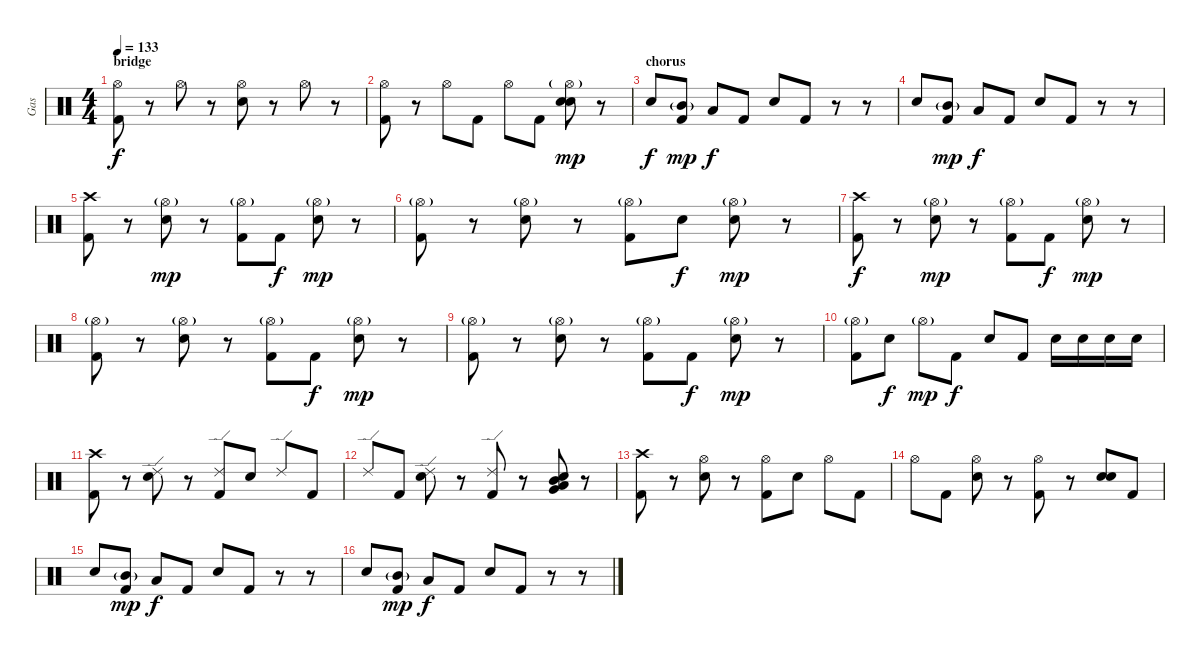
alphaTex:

\track ("Gas" "Gas") {instrument percussion}
\staff {score}
\articulation defaults
\ts (4 4)
\section ("" "bridge")
\tempo 133
\clef neutral
\ks c
("Hi-Hat (open)" "Kick (hit) 2").8{dy f} r.8 "Hi-Hat (open)".8 r.8 ("Hi-Hat (open)" "Electric Snare (hit)").8 r.8 "Hi-Hat (open)".8 r.8 |
("Hi-Hat (open)" "Kick (hit) 2").8 r.8 "Hi-Hat (open)".8 "Kick (hit) 2".8 "Hi-Hat (open)".8 "Kick (hit) 2".8 ("Hi-Hat (open)"{g} "Electric Snare (hit)" "Electric Snare (hit)").8{dy mp} r.8 |
\section ("" "chorus")
"Electric Snare (hit)".8{dy f} ("Kick (hit) 2" "Mid Tom (hit)"{g}).8{dy mp} "Low Tom (hit)".8{dy f} "Kick (hit) 2".8 "Electric Snare (hit)".8 "Kick (hit) 2".8 r.8 r.8 |
"Electric Snare (hit)".8 ("Kick (hit) 2" "Mid Tom (hit)"{g}).8{dy mp} "Low Tom (hit)".8{dy f} "Kick (hit) 2".8 "Electric Snare (hit)".8 "Kick (hit) 2".8 r.8 r.8 |
("Crash high (hit)" "Kick (hit) 2").8 r.8 ("Hi-Hat (open)"{g} "Electric Snare (hit)").8{dy mp} r.8 ("Hi-Hat (open)"{g} "Kick (hit) 2").8 "Kick (hit) 2".8{dy f} ("Hi-Hat (open)"{g} "Electric Snare (hit)").8{dy mp} r.8 |
("Hi-Hat (open)"{g} "Kick (hit) 2").8 r.8 ("Hi-Hat (open)"{g} "Electric Snare (hit)").8 r.8 ("Hi-Hat (open)"{g} "Kick (hit) 2").8 "Electric Snare (hit)".8{dy f} ("Hi-Hat (open)"{g} "Electric Snare (hit)").8{dy mp} r.8 |
("Crash high (hit)" "Kick (hit) 2").8{dy f} r.8 ("Hi-Hat (open)"{g} "Electric Snare (hit)").8{dy mp} r.8 ("Hi-Hat (open)"{g} "Kick (hit) 2").8 "Kick (hit) 2".8{dy f} ("Hi-Hat (open)"{g} "Electric Snare (hit)").8{dy mp} r.8 |
("Hi-Hat (open)"{g} "Kick (hit) 2").8 r.8 ("Hi-Hat (open)"{g} "Electric Snare (hit)").8 r.8 ("Hi-Hat (open)"{g} "Kick (hit) 2").8 "Kick (hit) 2".8{dy f} ("Hi-Hat (open)"{g} "Electric Snare (hit)").8{dy mp} r.8 |
("Hi-Hat (open)"{g} "Kick (hit) 2").8 r.8 ("Hi-Hat (open)"{g} "Electric Snare (hit)").8 r.8 ("Hi-Hat (open)"{g} "Kick (hit) 2").8 "Kick (hit) 2".8{dy f} ("Hi-Hat (open)"{g} "Electric Snare (hit)").8{dy mp} r.8 |
("Hi-Hat (open)"{g} "Kick (hit) 2").8 "Electric Snare (hit)".8{dy f} "Hi-Hat (open)"{g}.8{dy mp} "Kick (hit) 2".8{dy f} "Electric Snare (hit)".8 "Kick (hit) 2".8 "Electric Snare (hit)".16 "Electric Snare (hit)".16 "Electric Snare (hit)".16 "Electric Snare (hit)".16 |
("Crash high (hit)" "Kick (hit) 2").8 r.8 ("Ride (edge) 2" "Electric Snare (hit)").8 r.8 ("Ride (edge) 2" "Kick (hit) 2").8 "Electric Snare (hit)".8 "Ride (edge) 2".8 "Kick (hit) 2".8 |
"Ride (edge) 2".8 "Kick (hit) 2".8 ("Ride (edge) 2" "Electric Snare (hit)").8 r.8 ("Ride (edge) 2" "Kick (hit) 2").8 r.8 ("Electric Snare (hit)" "Mid Tom (hit)" "Low Floor Tom (hit)" "Very Low Tom (hit)").8 r.8 |
("Crash high (hit)" "Kick (hit) 2").8 r.8 ("Hi-Hat (open)" "Electric Snare (hit)").8 r.8 ("Hi-Hat (open)" "Kick (hit) 2").8 "Electric Snare (hit)".8 "Hi-Hat (open)".8 "Kick (hit) 2".8 |
"Hi-Hat (open)".8 "Kick (hit) 2".8 ("Hi-Hat (open)" "Electric Snare (hit)").8 r.8 ("Hi-Hat (open)" "Kick (hit) 2").8 r.8 ("Electric Snare (hit)" "Electric Snare (hit)").8 "Kick (hit) 2".8 |
"Electric Snare (hit)".8 ("Kick (hit) 2" "Mid Tom (hit)"{g}).8{dy mp} "Low Tom (hit)".8{dy f} "Kick (hit) 2".8 "Electric Snare (hit)".8 "Kick (hit) 2".8 r.8 r.8 |
"Electric Snare (hit)".8 ("Kick (hit) 2" "Mid Tom (hit)"{g}).8{dy mp} "Low Tom (hit)".8{dy f} "Kick (hit) 2".8 "Electric Snare (hit)".8 "Kick (hit) 2".8 r.8 r.8
